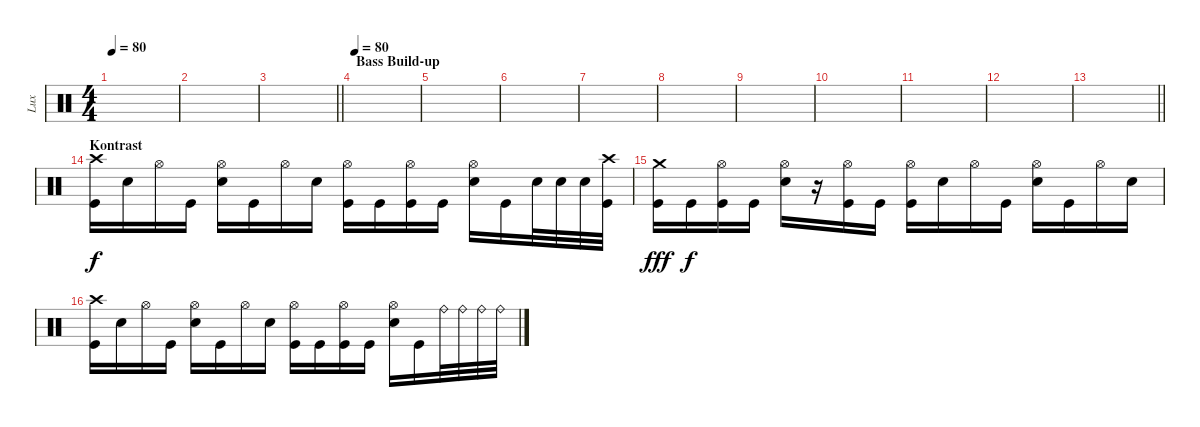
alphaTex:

\track ("Lux" "Lux") {solo instrument percussion}
\staff {score}
\articulation defaults
\ts (4 4)
\tempo 80
\clef neutral
\ks c
|
|
\barLineRight lightlight
|
\section ("" "Bass Build-up")
\tempo 80
|
|
|
|
|
|
|
|
|
\barLineRight lightlight
|
\section ("" "Kontrast")
("Crash high (hit)" "Kick (hit)").16 "Snare (hit) 2".16 "Hi-Hat (open)".16 "Kick (hit)".16 ("Hi-Hat (open)" "Snare (hit) 2").16 "Kick (hit)".16 "Hi-Hat (open)".16 "Snare (hit) 2".16 ("Hi-Hat (open)" "Kick (hit)").16 "Kick (hit)".16 ("Hi-Hat (open)" "Kick (hit)").16 "Kick (hit)".16 ("Hi-Hat (open)" "Snare (hit) 2").16 "Kick (hit)".16 "Snare (hit) 2".32 "Snare (hit) 2".32 "Snare (hit) 2".32 ("Crash high (hit)" "Kick (hit)").32 |
("Crash medium (hit)" "Kick (hit)").16{dy fff} "Kick (hit)".16{dy f} ("Hi-Hat (open)" "Kick (hit)").16 "Kick (hit)".16 ("Hi-Hat (open)" "Snare (hit) 2").16 r.16 ("Hi-Hat (open)" "Kick (hit)").16 "Kick (hit)".16 ("Hi-Hat (open)" "Kick (hit)").16 "Snare (hit) 2".16 "Hi-Hat (open)".16 "Kick (hit)".16 ("Hi-Hat (open)" "Snare (hit) 2").16 "Kick (hit)".16 "Hi-Hat (open)".16 "Snare (hit) 2".16 |
("Crash high (hit)" "Kick (hit)").16 "Snare (hit) 2".16 "Hi-Hat (open)".16 "Kick (hit)".16 ("Hi-Hat (open)" "Snare (hit) 2").16 "Kick (hit)".16 "Hi-Hat (open)".16 "Snare (hit) 2".16 ("Hi-Hat (open)" "Kick (hit)").16 "Kick (hit)".16 ("Hi-Hat (open)" "Kick (hit)").16 "Kick (hit)".16 ("Hi-Hat (open)" "Snare (hit) 2").16 "Kick (hit)".16 "Ride (bell)".32 "Ride (bell)".32 "Ride (bell)".32 "Ride (bell)".32
